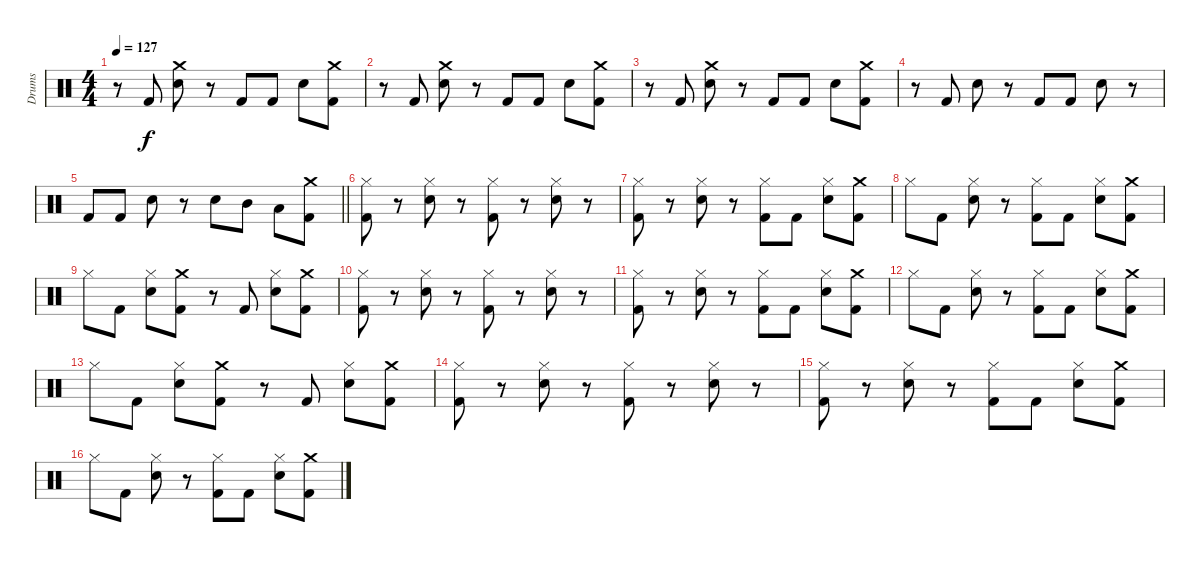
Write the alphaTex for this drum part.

\track ("Drums" "Drums") {instrument percussion}
\staff {score}
\articulation defaults
\ts (4 4)
\tempo 127
\clef neutral
\ks c
r.8{dy f} "Kick (hit) 2".8 ("Crash medium (hit)" "Snare (hit) 2").8 r.8 "Kick (hit) 2".8 "Kick (hit) 2".8 "Snare (hit) 2".8 ("Crash medium (hit)" "Kick (hit) 2").8 |
r.8 "Kick (hit) 2".8 ("Crash medium (hit)" "Snare (hit) 2").8 r.8 "Kick (hit) 2".8 "Kick (hit) 2".8 "Snare (hit) 2".8 ("Crash medium (hit)" "Kick (hit) 2").8 |
r.8 "Kick (hit) 2".8 ("Crash medium (hit)" "Snare (hit) 2").8 r.8 "Kick (hit) 2".8 "Kick (hit) 2".8 "Snare (hit) 2".8 ("Crash medium (hit)" "Kick (hit) 2").8 |
r.8 "Kick (hit) 2".8 "Snare (hit) 2".8 r.8 "Kick (hit) 2".8 "Kick (hit) 2".8 "Snare (hit) 2".8 r.8 |
\barLineRight lightlight "Kick (hit) 2".8 "Kick (hit) 2".8 "Snare (hit) 2".8
r.8 "Snare (hit) 2".8 "Mid Tom (hit)".8 "Low Tom (hit)".8 ("Crash medium (hit)" "Kick (hit) 2").8 |
("Hi-Hat (closed)" "Kick (hit) 2").8 r.8 ("Hi-Hat (closed)" "Snare (hit) 2").8 r.8 ("Hi-Hat (closed)" "Kick (hit) 2").8 r.8 ("Hi-Hat (closed)" "Snare (hit) 2").8 r.8 |
("Hi-Hat (closed)" "Kick (hit) 2").8 r.8 ("Hi-Hat (closed)" "Snare (hit) 2").8 r.8 ("Hi-Hat (closed)" "Kick (hit) 2").8 "Kick (hit) 2".8 ("Hi-Hat (closed)" "Snare (hit) 2").8 ("Crash medium (hit)" "Kick (hit) 2").8 |
"Hi-Hat (closed)".8 "Kick (hit) 2".8 ("Hi-Hat (closed)" "Snare (hit) 2").8 r.8 ("Hi-Hat (closed)" "Kick (hit) 2").8 "Kick (hit) 2".8 ("Hi-Hat (closed)" "Snare (hit) 2").8 ("Crash medium (hit)" "Kick (hit) 2").8 |
"Hi-Hat (closed)".8 "Kick (hit) 2".8 ("Hi-Hat (closed)" "Snare (hit) 2").8 ("Crash medium (hit)" "Kick (hit) 2").8 r.8 "Kick (hit) 2".8 ("Hi-Hat (closed)" "Snare (hit) 2").8 ("Crash medium (hit)" "Kick (hit) 2").8 |
("Hi-Hat (closed)" "Kick (hit) 2").8 r.8 ("Hi-Hat (closed)" "Snare (hit) 2").8 r.8 ("Hi-Hat (closed)" "Kick (hit) 2").8 r.8 ("Hi-Hat (closed)" "Snare (hit) 2").8 r.8 |
("Hi-Hat (closed)" "Kick (hit) 2").8 r.8 ("Hi-Hat (closed)" "Snare (hit) 2").8 r.8 ("Hi-Hat (closed)" "Kick (hit) 2").8 "Kick (hit) 2".8 ("Hi-Hat (closed)" "Snare (hit) 2").8 ("Crash medium (hit)" "Kick (hit) 2").8 |
"Hi-Hat (closed)".8 "Kick (hit) 2".8 ("Hi-Hat (closed)" "Snare (hit) 2").8 r.8 ("Hi-Hat (closed)" "Kick (hit) 2").8 "Kick (hit) 2".8 ("Hi-Hat (closed)" "Snare (hit) 2").8 ("Crash medium (hit)" "Kick (hit) 2").8 |
"Hi-Hat (closed)".8 "Kick (hit) 2".8 ("Hi-Hat (closed)" "Snare (hit) 2").8 ("Crash medium (hit)" "Kick (hit) 2").8 r.8 "Kick (hit) 2".8 ("Hi-Hat (closed)" "Snare (hit) 2").8 ("Crash medium (hit)" "Kick (hit) 2").8 |
("Hi-Hat (closed)" "Kick (hit) 2").8 r.8 ("Hi-Hat (closed)" "Snare (hit) 2").8 r.8 ("Hi-Hat (closed)" "Kick (hit) 2").8 r.8 ("Hi-Hat (closed)" "Snare (hit) 2").8 r.8 |
("Hi-Hat (closed)" "Kick (hit) 2").8 r.8 ("Hi-Hat (closed)" "Snare (hit) 2").8 r.8 ("Hi-Hat (closed)" "Kick (hit) 2").8 "Kick (hit) 2".8 ("Hi-Hat (closed)" "Snare (hit) 2").8 ("Crash medium (hit)" "Kick (hit) 2").8 |
"Hi-Hat (closed)".8 "Kick (hit) 2".8 ("Hi-Hat (closed)" "Snare (hit) 2").8 r.8 ("Hi-Hat (closed)" "Kick (hit) 2").8 "Kick (hit) 2".8 ("Hi-Hat (closed)" "Snare (hit) 2").8 ("Crash medium (hit)" "Kick (hit) 2").8
